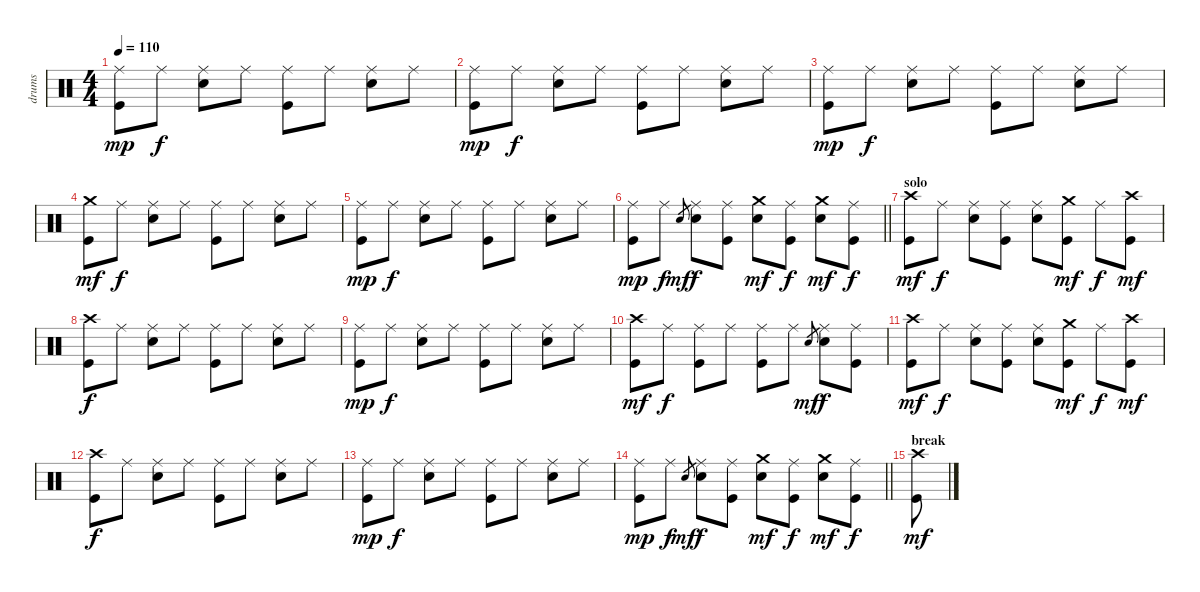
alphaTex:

\track ("drums" "drums") {instrument percussion}
\staff {score}
\articulation defaults
\ts (4 4)
\tempo 110
\clef neutral
\ks c
("Ride (middle)" "Kick (hit)").8{dy mp} "Ride (middle)".8{dy f} ("Ride (middle)" "Snare (hit) 2").8 "Ride (middle)".8 ("Ride (middle)" "Kick (hit)").8 "Ride (middle)".8 ("Ride (middle)" "Snare (hit) 2").8 "Ride (middle)".8 |
("Ride (middle)" "Kick (hit)").8{dy mp} "Ride (middle)".8{dy f} ("Ride (middle)" "Snare (hit) 2").8 "Ride (middle)".8 ("Ride (middle)" "Kick (hit)").8 "Ride (middle)".8 ("Ride (middle)" "Snare (hit) 2").8 "Ride (middle)".8 |
("Ride (middle)" "Kick (hit)").8{dy mp} "Ride (middle)".8{dy f} ("Ride (middle)" "Snare (hit) 2").8 "Ride (middle)".8 ("Ride (middle)" "Kick (hit)").8 "Ride (middle)".8 ("Ride (middle)" "Snare (hit) 2").8 "Ride (middle)".8 |
("Crash medium (hit)" "Kick (hit)").8{dy mf} "Ride (middle)".8{dy f} ("Ride (middle)" "Snare (hit) 2").8 "Ride (middle)".8 ("Ride (middle)" "Kick (hit)").8 "Ride (middle)".8 ("Ride (middle)" "Snare (hit) 2").8 "Ride (middle)".8 |
("Ride (middle)" "Kick (hit)").8{dy mp} "Ride (middle)".8{dy f} ("Ride (middle)" "Snare (hit) 2").8 "Ride (middle)".8 ("Ride (middle)" "Kick (hit)").8 "Ride (middle)".8 ("Ride (middle)" "Snare (hit) 2").8 "Ride (middle)".8 |
\barLineRight lightlight
("Ride (middle)" "Kick (hit)").8{dy mp} "Ride (middle)".8{dy f} "Snare (hit) 2".8{gr dy mf} ("Ride (middle)" "Snare (hit) 2").8{dy f} ("Ride (middle)" "Kick (hit)").8 ("Crash medium (hit)" "Snare (hit) 2").8{dy mf} ("Ride (middle)" "Kick (hit)").8{dy f} ("Crash medium (hit)" "Snare (hit) 2").8{dy mf} ("Ride (middle)" "Kick (hit)").8{dy f} |
\section ("" "solo")
("Crash high (hit)" "Kick (hit)").8{dy mf} "Ride (middle)".8{dy f} ("Ride (middle)" "Snare (hit) 2").8 ("Ride (middle)" "Kick (hit)").8 ("Ride (middle)" "Snare (hit) 2").8 ("Crash medium (hit)" "Kick (hit)").8{dy mf} "Ride (middle)".8{dy f} ("Crash high (hit)" "Kick (hit)").8{dy mf} |
("Crash high (hit)" "Kick (hit)").8{dy f} "Ride (middle)".8 ("Ride (middle)" "Snare (hit) 2").8 "Ride (middle)".8 ("Ride (middle)" "Kick (hit)").8 "Ride (middle)".8 ("Ride (middle)" "Snare (hit) 2").8 "Ride (middle)".8 |
("Ride (middle)" "Kick (hit)").8{dy mp} "Ride (middle)".8{dy f} ("Ride (middle)" "Snare (hit) 2").8 "Ride (middle)".8 ("Ride (middle)" "Kick (hit)").8 "Ride (middle)".8 ("Ride (middle)" "Snare (hit) 2").8 "Ride (middle)".8 |
("Crash high (hit)" "Kick (hit)").8{dy mf} "Ride (middle)".8{dy f} ("Ride (middle)" "Kick (hit)").8 "Ride (middle)".8 ("Ride (middle)" "Kick (hit)").8 "Ride (middle)".8 "Snare (hit) 2".8{gr dy mf} ("Ride (middle)" "Snare (hit) 2").8{dy f} ("Ride (middle)" "Kick (hit)").8 |
("Crash high (hit)" "Kick (hit)").8{dy mf} "Ride (middle)".8{dy f} ("Ride (middle)" "Snare (hit) 2").8 ("Ride (middle)" "Kick (hit)").8 ("Ride (middle)" "Snare (hit) 2").8 ("Crash medium (hit)" "Kick (hit)").8{dy mf} "Ride (middle)".8{dy f} ("Crash high (hit)" "Kick (hit)").8{dy mf} |
("Crash high (hit)" "Kick (hit)").8{dy f} "Ride (middle)".8 ("Ride (middle)" "Snare (hit) 2").8 "Ride (middle)".8 ("Ride (middle)" "Kick (hit)").8 "Ride (middle)".8 ("Ride (middle)" "Snare (hit) 2").8 "Ride (middle)".8 |
("Ride (middle)" "Kick (hit)").8{dy mp} "Ride (middle)".8{dy f} ("Ride (middle)" "Snare (hit) 2").8 "Ride (middle)".8 ("Ride (middle)" "Kick (hit)").8 "Ride (middle)".8 ("Ride (middle)" "Snare (hit) 2").8 "Ride (middle)".8 |
\barLineRight lightlight
("Ride (middle)" "Kick (hit)").8{dy mp} "Ride (middle)".8{dy f} "Snare (hit) 2".8{gr dy mf} ("Ride (middle)" "Snare (hit) 2").8{dy f} ("Ride (middle)" "Kick (hit)").8 ("Crash medium (hit)" "Snare (hit) 2").8{dy mf} ("Ride (middle)" "Kick (hit)").8{dy f} ("Crash medium (hit)" "Snare (hit) 2").8{dy mf} ("Ride (middle)" "Kick (hit)").8{dy f} |
\section ("" "break")
("Crash high (hit)" "Kick (hit)").8{dy mf}
